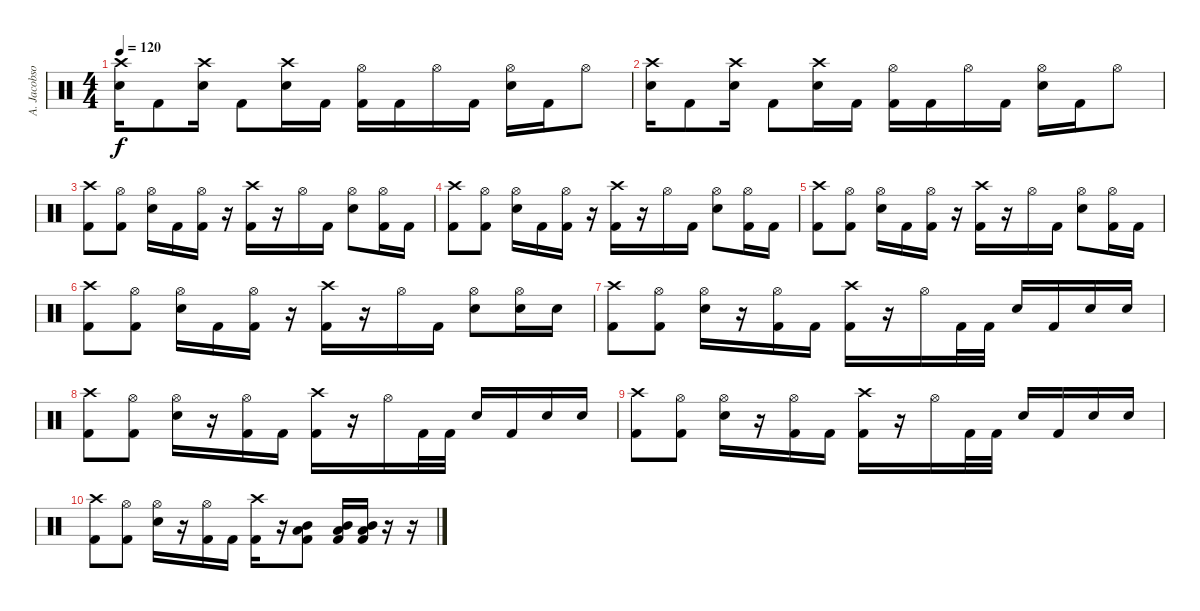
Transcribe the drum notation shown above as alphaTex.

\track ("A. Jacobson" "A. Jacobso") {instrument percussion}
\staff {score}
\articulation defaults
\ts (4 4)
\tempo 120
\clef neutral
\ks c
("Crash high (hit)" "Electric Snare (hit)").16{dy f} "Kick (hit) 2".8 ("Crash high (hit)" "Electric Snare (hit)").16 "Kick (hit) 2".8 ("Crash high (hit)" "Electric Snare (hit)").16 "Kick (hit) 2".16 ("Hi-Hat (open)" "Kick (hit) 2").16 "Kick (hit) 2".16 "Hi-Hat (open)".16 "Kick (hit) 2".16 ("Hi-Hat (open)" "Electric Snare (hit)").16 "Kick (hit) 2".16 "Hi-Hat (open)".8 |
("Crash high (hit)" "Electric Snare (hit)").16 "Kick (hit) 2".8 ("Crash high (hit)" "Electric Snare (hit)").16 "Kick (hit) 2".8 ("Crash high (hit)" "Electric Snare (hit)").16 "Kick (hit) 2".16 ("Hi-Hat (open)" "Kick (hit) 2").16 "Kick (hit) 2".16 "Hi-Hat (open)".16 "Kick (hit) 2".16 ("Hi-Hat (open)" "Electric Snare (hit)").16 "Kick (hit) 2".16 "Hi-Hat (open)".8 |
("Crash high (hit)" "Kick (hit) 2").8 ("Hi-Hat (open)" "Kick (hit) 2").8 ("Hi-Hat (open)" "Electric Snare (hit)").16 "Kick (hit) 2".16 ("Hi-Hat (open)" "Kick (hit) 2").16 r.16 ("Crash high (hit)" "Kick (hit) 2").16 r.16 "Hi-Hat (open)".16 "Kick (hit) 2".16 ("Hi-Hat (open)" "Electric Snare (hit)").8 ("Hi-Hat (open)" "Kick (hit) 2").16 "Kick (hit) 2".16 |
("Crash high (hit)" "Kick (hit) 2").8 ("Hi-Hat (open)" "Kick (hit) 2").8 ("Hi-Hat (open)" "Electric Snare (hit)").16 "Kick (hit) 2".16 ("Hi-Hat (open)" "Kick (hit) 2").16 r.16 ("Crash high (hit)" "Kick (hit) 2").16 r.16 "Hi-Hat (open)".16 "Kick (hit) 2".16 ("Hi-Hat (open)" "Electric Snare (hit)").8 ("Hi-Hat (open)" "Kick (hit) 2").16 "Kick (hit) 2".16 |
("Crash high (hit)" "Kick (hit) 2").8 ("Hi-Hat (open)" "Kick (hit) 2").8 ("Hi-Hat (open)" "Electric Snare (hit)").16 "Kick (hit) 2".16 ("Hi-Hat (open)" "Kick (hit) 2").16 r.16 ("Crash high (hit)" "Kick (hit) 2").16 r.16 "Hi-Hat (open)".16 "Kick (hit) 2".16 ("Hi-Hat (open)" "Electric Snare (hit)").8 ("Hi-Hat (open)" "Kick (hit) 2").16 "Kick (hit) 2".16 |
("Crash high (hit)" "Kick (hit) 2").8 ("Hi-Hat (open)" "Kick (hit) 2").8 ("Hi-Hat (open)" "Electric Snare (hit)").16 "Kick (hit) 2".16 ("Hi-Hat (open)" "Kick (hit) 2").16 r.16 ("Crash high (hit)" "Kick (hit) 2").16 r.16 "Hi-Hat (open)".16 "Kick (hit) 2".16 ("Hi-Hat (open)" "Electric Snare (hit)").8 ("Hi-Hat (open)" "Electric Snare (hit)").16 "Electric Snare (hit)".16 |
("Crash high (hit)" "Kick (hit) 2").8 ("Hi-Hat (open)" "Kick (hit) 2").8 ("Hi-Hat (open)" "Electric Snare (hit)").16 r.16 ("Hi-Hat (open)" "Kick (hit) 2").16 "Kick (hit) 2".16 ("Crash high (hit)" "Kick (hit) 2").16 r.16 "Hi-Hat (open)".16 "Kick (hit) 2".32 "Kick (hit) 2".32 "Electric Snare (hit)".16 "Kick (hit) 2".16 "Electric Snare (hit)".16 "Electric Snare (hit)".16 |
("Crash high (hit)" "Kick (hit) 2").8 ("Hi-Hat (open)" "Kick (hit) 2").8 ("Hi-Hat (open)" "Electric Snare (hit)").16 r.16 ("Hi-Hat (open)" "Kick (hit) 2").16 "Kick (hit) 2".16 ("Crash high (hit)" "Kick (hit) 2").16 r.16 "Hi-Hat (open)".16 "Kick (hit) 2".32 "Kick (hit) 2".32 "Electric Snare (hit)".16 "Kick (hit) 2".16 "Electric Snare (hit)".16 "Electric Snare (hit)".16 |
("Crash high (hit)" "Kick (hit) 2").8 ("Hi-Hat (open)" "Kick (hit) 2").8 ("Hi-Hat (open)" "Electric Snare (hit)").16 r.16 ("Hi-Hat (open)" "Kick (hit) 2").16 "Kick (hit) 2".16 ("Crash high (hit)" "Kick (hit) 2").16 r.16 "Hi-Hat (open)".16 "Kick (hit) 2".32 "Kick (hit) 2".32 "Electric Snare (hit)".16 "Kick (hit) 2".16 "Electric Snare (hit)".16 "Electric Snare (hit)".16 |
("Crash high (hit)" "Kick (hit) 2").8 ("Hi-Hat (open)" "Kick (hit) 2").8 ("Hi-Hat (open)" "Electric Snare (hit)").16 r.16 ("Hi-Hat (open)" "Kick (hit) 2").16 "Kick (hit) 2".16 ("Crash high (hit)" "Kick (hit) 2").16 r.16 ("Mid Tom (hit)" "Low Tom (hit)" "Kick (hit) 2").8 ("Mid Tom (hit)" "Low Tom (hit)" "Kick (hit) 2").16 ("Mid Tom (hit)" "Low Tom (hit)" "Kick (hit) 2").16 r.16 r.16
